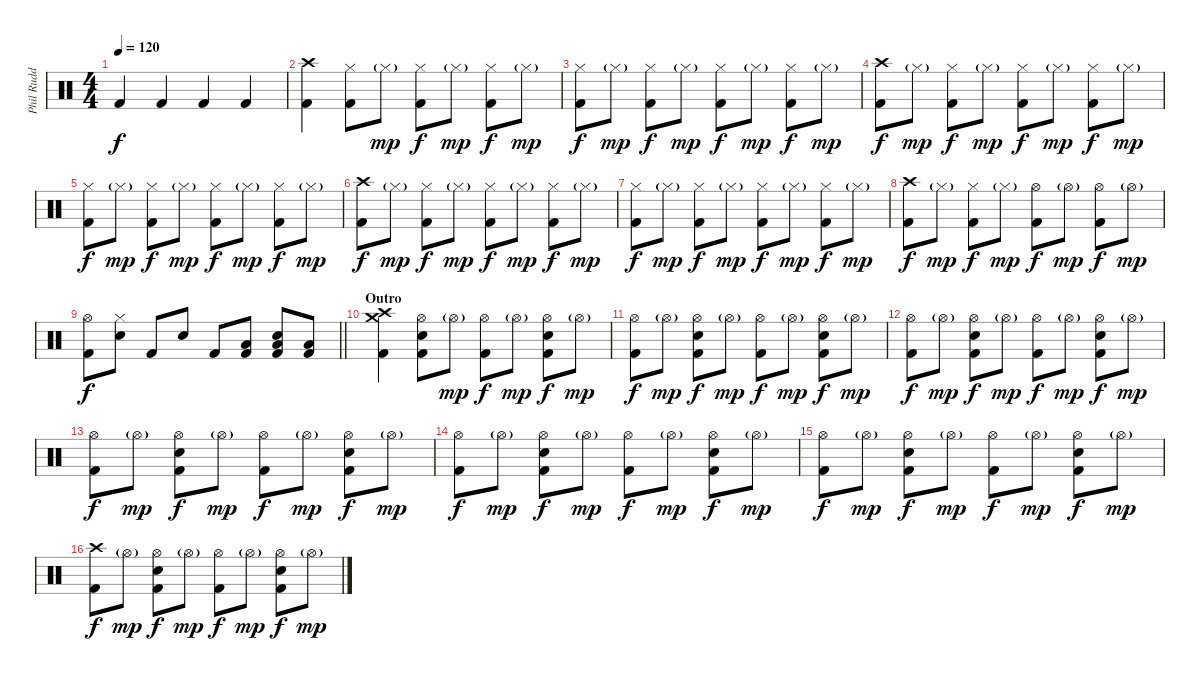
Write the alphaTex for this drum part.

\track ("Phil Rudd" "Phil Rudd") {instrument percussion}
\staff {score}
\articulation defaults
\ts (4 4)
\tempo 120
\clef neutral
\ks c "Kick (hit) 2".4{dy f} "Kick (hit) 2".4 "Kick (hit) 2".4 "Kick (hit) 2".4
|
("Crash high (hit)" "Kick (hit) 2").4 ("Hi-Hat (closed)" "Kick (hit) 2").8 "Hi-Hat (closed)"{g}.8{dy mp} ("Hi-Hat (closed)" "Kick (hit) 2").8{dy f} "Hi-Hat (closed)"{g}.8{dy mp} ("Hi-Hat (closed)" "Kick (hit) 2").8{dy f} "Hi-Hat (closed)"{g}.8{dy mp} |
("Hi-Hat (closed)" "Kick (hit) 2").8{dy f} "Hi-Hat (closed)"{g}.8{dy mp} ("Hi-Hat (closed)" "Kick (hit) 2").8{dy f} "Hi-Hat (closed)"{g}.8{dy mp} ("Hi-Hat (closed)" "Kick (hit) 2").8{dy f} "Hi-Hat (closed)"{g}.8{dy mp} ("Hi-Hat (closed)" "Kick (hit) 2").8{dy f} "Hi-Hat (closed)"{g}.8{dy mp} |
("Crash high (hit)" "Kick (hit) 2").8{dy f} "Hi-Hat (closed)"{g}.8{dy mp} ("Hi-Hat (closed)" "Kick (hit) 2").8{dy f} "Hi-Hat (closed)"{g}.8{dy mp} ("Hi-Hat (closed)" "Kick (hit) 2").8{dy f} "Hi-Hat (closed)"{g}.8{dy mp} ("Hi-Hat (closed)" "Kick (hit) 2").8{dy f} "Hi-Hat (closed)"{g}.8{dy mp} |
("Hi-Hat (closed)" "Kick (hit) 2").8{dy f} "Hi-Hat (closed)"{g}.8{dy mp} ("Hi-Hat (closed)" "Kick (hit) 2").8{dy f} "Hi-Hat (closed)"{g}.8{dy mp} ("Hi-Hat (closed)" "Kick (hit) 2").8{dy f} "Hi-Hat (closed)"{g}.8{dy mp} ("Hi-Hat (closed)" "Kick (hit) 2").8{dy f} "Hi-Hat (closed)"{g}.8{dy mp} |
("Crash high (hit)" "Kick (hit) 2").8{dy f} "Hi-Hat (closed)"{g}.8{dy mp} ("Hi-Hat (closed)" "Kick (hit) 2").8{dy f} "Hi-Hat (closed)"{g}.8{dy mp} ("Hi-Hat (closed)" "Kick (hit) 2").8{dy f} "Hi-Hat (closed)"{g}.8{dy mp} ("Hi-Hat (closed)" "Kick (hit) 2").8{dy f} "Hi-Hat (closed)"{g}.8{dy mp} |
("Hi-Hat (closed)" "Kick (hit) 2").8{dy f} "Hi-Hat (closed)"{g}.8{dy mp} ("Hi-Hat (closed)" "Kick (hit) 2").8{dy f} "Hi-Hat (closed)"{g}.8{dy mp} ("Hi-Hat (closed)" "Kick (hit) 2").8{dy f} "Hi-Hat (closed)"{g}.8{dy mp} ("Hi-Hat (closed)" "Kick (hit) 2").8{dy f} "Hi-Hat (closed)"{g}.8{dy mp} |
("Crash high (hit)" "Kick (hit) 2").8{dy f} "Hi-Hat (closed)"{g}.8{dy mp} ("Hi-Hat (closed)" "Kick (hit) 2").8{dy f} "Hi-Hat (closed)"{g}.8{dy mp} ("Hi-Hat (open)" "Kick (hit) 2").8{dy f} "Hi-Hat (open)"{g}.8{dy mp} ("Hi-Hat (open)" "Kick (hit) 2").8{dy f} "Hi-Hat (open)"{g}.8{dy mp} |
\barLineRight lightlight
("Hi-Hat (open)" "Kick (hit) 2").8{dy f} ("Hi-Hat (closed)" "Electric Snare (hit)").8 "Kick (hit) 2".8 "Electric Snare (hit)".8 "Kick (hit) 2".8 ("Low Floor Tom (hit)" "Kick (hit) 2").8 ("Electric Snare (hit)" "Low Floor Tom (hit)" "Kick (hit) 2").8 ("Low Floor Tom (hit)" "Kick (hit) 2").8 |
\section ("" "Outro")
("Crash high (hit)" "Crash medium (hit)" "Kick (hit) 2").4 ("Hi-Hat (open)" "Electric Snare (hit)" "Kick (hit) 2").8 "Hi-Hat (open)"{g}.8{dy mp} ("Hi-Hat (open)" "Kick (hit) 2").8{dy f} "Hi-Hat (open)"{g}.8{dy mp} ("Hi-Hat (open)" "Electric Snare (hit)" "Kick (hit) 2").8{dy f} "Hi-Hat (open)"{g}.8{dy mp} |
("Hi-Hat (open)" "Kick (hit) 2").8{dy f} "Hi-Hat (open)"{g}.8{dy mp} ("Hi-Hat (open)" "Electric Snare (hit)" "Kick (hit) 2").8{dy f} "Hi-Hat (open)"{g}.8{dy mp} ("Hi-Hat (open)" "Kick (hit) 2").8{dy f} "Hi-Hat (open)"{g}.8{dy mp} ("Hi-Hat (open)" "Electric Snare (hit)" "Kick (hit) 2").8{dy f} "Hi-Hat (open)"{g}.8{dy mp} |
("Hi-Hat (open)" "Kick (hit) 2").8{dy f} "Hi-Hat (open)"{g}.8{dy mp} ("Hi-Hat (open)" "Electric Snare (hit)" "Kick (hit) 2").8{dy f} "Hi-Hat (open)"{g}.8{dy mp} ("Hi-Hat (open)" "Kick (hit) 2").8{dy f} "Hi-Hat (open)"{g}.8{dy mp} ("Hi-Hat (open)" "Electric Snare (hit)" "Kick (hit) 2").8{dy f} "Hi-Hat (open)"{g}.8{dy mp} |
("Hi-Hat (open)" "Kick (hit) 2").8{dy f} "Hi-Hat (open)"{g}.8{dy mp} ("Hi-Hat (open)" "Electric Snare (hit)" "Kick (hit) 2").8{dy f} "Hi-Hat (open)"{g}.8{dy mp} ("Hi-Hat (open)" "Kick (hit) 2").8{dy f} "Hi-Hat (open)"{g}.8{dy mp} ("Hi-Hat (open)" "Electric Snare (hit)" "Kick (hit) 2").8{dy f} "Hi-Hat (open)"{g}.8{dy mp} |
("Hi-Hat (open)" "Kick (hit) 2").8{dy f} "Hi-Hat (open)"{g}.8{dy mp} ("Hi-Hat (open)" "Electric Snare (hit)" "Kick (hit) 2").8{dy f} "Hi-Hat (open)"{g}.8{dy mp} ("Hi-Hat (open)" "Kick (hit) 2").8{dy f} "Hi-Hat (open)"{g}.8{dy mp} ("Hi-Hat (open)" "Electric Snare (hit)" "Kick (hit) 2").8{dy f} "Hi-Hat (open)"{g}.8{dy mp} |
("Hi-Hat (open)" "Kick (hit) 2").8{dy f} "Hi-Hat (open)"{g}.8{dy mp} ("Hi-Hat (open)" "Electric Snare (hit)" "Kick (hit) 2").8{dy f} "Hi-Hat (open)"{g}.8{dy mp} ("Hi-Hat (open)" "Kick (hit) 2").8{dy f} "Hi-Hat (open)"{g}.8{dy mp} ("Hi-Hat (open)" "Electric Snare (hit)" "Kick (hit) 2").8{dy f} "Hi-Hat (open)"{g}.8{dy mp} |
("Crash high (hit)" "Kick (hit) 2").8{dy f} "Hi-Hat (open)"{g}.8{dy mp} ("Hi-Hat (open)" "Electric Snare (hit)" "Kick (hit) 2").8{dy f} "Hi-Hat (open)"{g}.8{dy mp} ("Hi-Hat (open)" "Kick (hit) 2").8{dy f} "Hi-Hat (open)"{g}.8{dy mp} ("Hi-Hat (open)" "Electric Snare (hit)" "Kick (hit) 2").8{dy f} "Hi-Hat (open)"{g}.8{dy mp}
